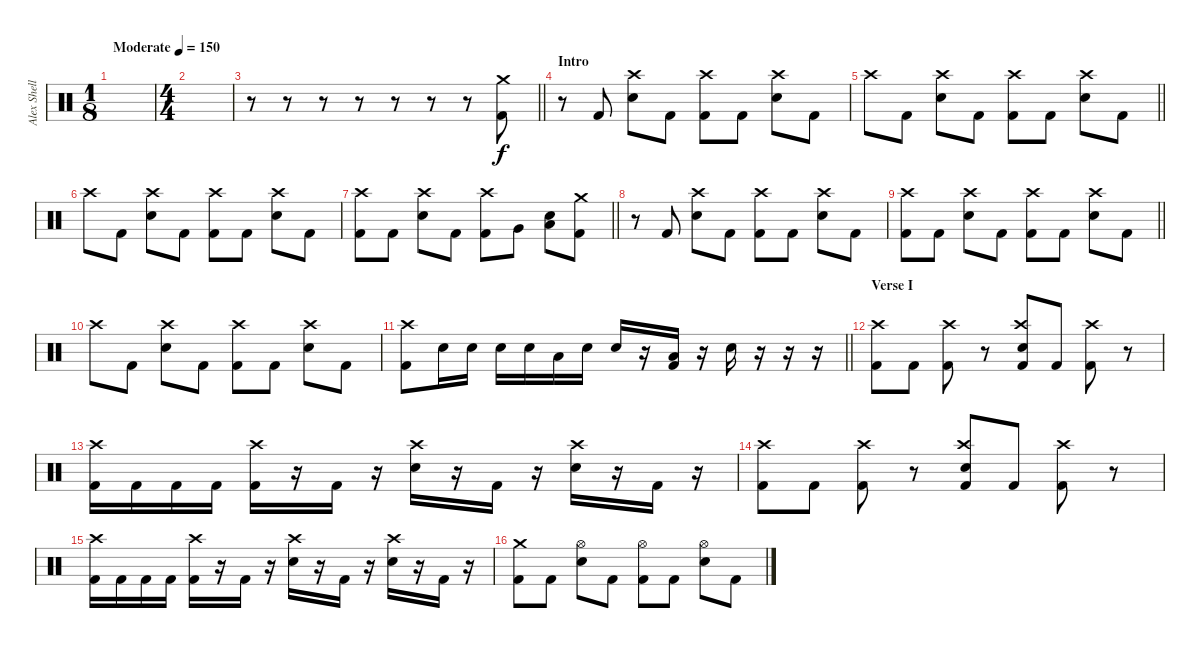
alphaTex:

\track ("Alex Shellnutt" "Alex Shell") {instrument percussion}
\staff {score}
\articulation defaults
\ts (1 8)
\tempo (150 "Moderate")
\clef neutral
\ks c
|
\ts (4 4)
|
\barLineRight lightlight
r.8 r.8 r.8 r.8 r.8 r.8 r.8 ("Crash medium (hit)" "Kick (hit) 2").8 |
\section ("" "Intro")
r.8 "Kick (hit) 2".8 ("Crash high (hit)" "Snare (hit) 2").8 "Kick (hit) 2".8 ("Crash high (hit)" "Kick (hit) 2").8 "Kick (hit) 2".8 ("Crash high (hit)" "Snare (hit) 2").8 "Kick (hit) 2".8 |
\barLineRight lightlight "Crash high (hit)".8 "Kick (hit) 2".8
("Crash high (hit)" "Snare (hit) 2").8 "Kick (hit) 2".8 ("Crash high (hit)" "Kick (hit) 2").8 "Kick (hit) 2".8 ("Crash high (hit)" "Snare (hit) 2").8 "Kick (hit) 2".8 |
"Crash high (hit)".8 "Kick (hit) 2".8 ("Crash high (hit)" "Snare (hit) 2").8 "Kick (hit) 2".8 ("Crash high (hit)" "Kick (hit) 2").8 "Kick (hit) 2".8 ("Crash high (hit)" "Snare (hit) 2").8 "Kick (hit) 2".8 |
\barLineRight lightlight
("Crash high (hit)" "Kick (hit) 2").8 "Kick (hit) 2".8 ("Crash high (hit)" "Snare (hit) 2").8 "Kick (hit) 2".8 ("Crash high (hit)" "Kick (hit) 2").8 "Very Low Tom (hit)".8 ("Low Floor Tom (hit)" "Snare (hit) 2").8 ("Crash medium (hit)" "Kick (hit) 2").8 |
r.8 "Kick (hit) 2".8 ("Crash high (hit)" "Snare (hit) 2").8 "Kick (hit) 2".8 ("Crash high (hit)" "Kick (hit) 2").8 "Kick (hit) 2".8 ("Crash high (hit)" "Snare (hit) 2").8 "Kick (hit) 2".8 |
\barLineRight lightlight
("Crash high (hit)" "Kick (hit) 2").8 "Kick (hit) 2".8 ("Crash high (hit)" "Snare (hit) 2").8 "Kick (hit) 2".8 ("Crash high (hit)" "Kick (hit) 2").8 "Kick (hit) 2".8 ("Crash high (hit)" "Snare (hit) 2").8 "Kick (hit) 2".8 |
"Crash high (hit)".8 "Kick (hit) 2".8 ("Crash high (hit)" "Snare (hit) 2").8 "Kick (hit) 2".8 ("Crash high (hit)" "Kick (hit) 2").8 "Kick (hit) 2".8 ("Crash high (hit)" "Snare (hit) 2").8 "Kick (hit) 2".8 |
\barLineRight lightlight
("Crash high (hit)" "Kick (hit) 2").8 "Snare (hit) 2".16 "Snare (hit) 2".16 "Snare (hit) 2".16 "Snare (hit) 2".16 "Low Floor Tom (hit)".16 "Snare (hit) 2".16 "Snare (hit) 2".16 r.16 ("Low Floor Tom (hit)" "Kick (hit) 2").16 r.16 "Snare (hit) 2".16 r.16 r.16 r.16 |
\section ("" "Verse I")
("Crash high (hit)" "Kick (hit) 2").8 "Kick (hit) 2".8 ("Crash high (hit)" "Kick (hit) 2").8 r.8 ("Crash high (hit)" "Snare (hit) 2" "Kick (hit) 2").8 "Kick (hit) 2".8 ("Crash high (hit)" "Kick (hit) 2").8 r.8 |
("Crash high (hit)" "Kick (hit) 2").16 "Kick (hit) 2".16 "Kick (hit) 2".16 "Kick (hit) 2".16 ("Crash high (hit)" "Kick (hit) 2").16 r.16 "Kick (hit) 2".16 r.16 ("Crash high (hit)" "Snare (hit) 2").16 r.16 "Kick (hit) 2".16 r.16 ("Crash high (hit)" "Snare (hit) 2").16 r.16 "Kick (hit) 2".16 r.16 |
("Crash high (hit)" "Kick (hit) 2").8 "Kick (hit) 2".8 ("Crash high (hit)" "Kick (hit) 2").8 r.8 ("Crash high (hit)" "Snare (hit) 2" "Kick (hit) 2").8 "Kick (hit) 2".8 ("Crash high (hit)" "Kick (hit) 2").8 r.8 |
("Crash high (hit)" "Kick (hit) 2").16 "Kick (hit) 2".16 "Kick (hit) 2".16 "Kick (hit) 2".16 ("Crash high (hit)" "Kick (hit) 2").16 r.16 "Kick (hit) 2".16 r.16 ("Crash high (hit)" "Snare (hit) 2").16 r.16 "Kick (hit) 2".16 r.16 ("Crash high (hit)" "Snare (hit) 2").16 r.16 "Kick (hit) 2".16 r.16 |
("Crash medium (hit)" "Kick (hit) 2").8 "Kick (hit) 2".8 ("Hi-Hat (open)" "Snare (hit) 2").8 "Kick (hit) 2".8 ("Hi-Hat (open)" "Kick (hit) 2").8 "Kick (hit) 2".8 ("Hi-Hat (open)" "Snare (hit) 2").8 "Kick (hit) 2".8
